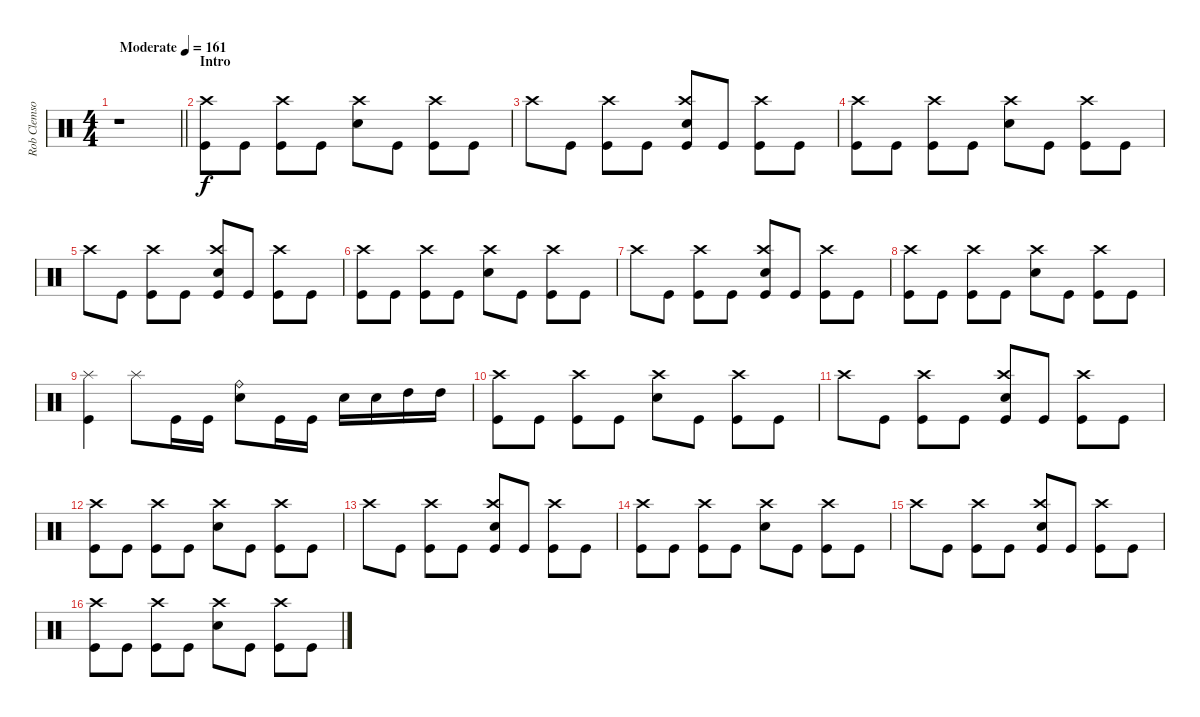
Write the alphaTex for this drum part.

\track ("Rob Clemson (Drums)" "Rob Clemso") {instrument percussion}
\staff {score}
\articulation defaults
\ts (4 4)
\tempo (161 "Moderate")
\clef neutral
\barLineRight lightlight
\ks c
r.1{dy f} |
\section ("" "Intro")
("Kick (hit)" "Crash high (hit)").8 "Kick (hit)".8 ("Kick (hit)" "Crash high (hit)").8 "Kick (hit)".8 ("Electric Snare (hit)" "Crash high (hit)").8 "Kick (hit)".8 ("Kick (hit)" "Crash high (hit)").8 "Kick (hit)".8 |
"Crash high (hit)".8 "Kick (hit)".8 ("Kick (hit)" "Crash high (hit)").8 "Kick (hit)".8 ("Crash high (hit)" "Kick (hit)" "Electric Snare (hit)").8 "Kick (hit)".8 ("Kick (hit)" "Crash high (hit)").8 "Kick (hit)".8 |
("Kick (hit)" "Crash high (hit)").8 "Kick (hit)".8 ("Kick (hit)" "Crash high (hit)").8 "Kick (hit)".8 ("Electric Snare (hit)" "Crash high (hit)").8 "Kick (hit)".8 ("Kick (hit)" "Crash high (hit)").8 "Kick (hit)".8 |
"Crash high (hit)".8 "Kick (hit)".8 ("Kick (hit)" "Crash high (hit)").8 "Kick (hit)".8 ("Crash high (hit)" "Kick (hit)" "Electric Snare (hit)").8 "Kick (hit)".8 ("Kick (hit)" "Crash high (hit)").8 "Kick (hit)".8 |
("Kick (hit)" "Crash high (hit)").8 "Kick (hit)".8 ("Kick (hit)" "Crash high (hit)").8 "Kick (hit)".8 ("Electric Snare (hit)" "Crash high (hit)").8 "Kick (hit)".8 ("Kick (hit)" "Crash high (hit)").8 "Kick (hit)".8 |
"Crash high (hit)".8 "Kick (hit)".8 ("Kick (hit)" "Crash high (hit)").8 "Kick (hit)".8 ("Crash high (hit)" "Kick (hit)" "Electric Snare (hit)").8 "Kick (hit)".8 ("Kick (hit)" "Crash high (hit)").8 "Kick (hit)".8 |
("Kick (hit)" "Crash high (hit)").8 "Kick (hit)".8 ("Kick (hit)" "Crash high (hit)").8 "Kick (hit)".8 ("Electric Snare (hit)" "Crash high (hit)").8 "Kick (hit)".8 ("Kick (hit)" "Crash high (hit)").8 "Kick (hit)".8 |
("Splash (hit)" "Kick (hit)").4 "Splash (hit)".8 "Kick (hit)".16 "Kick (hit)".16 ("Electric Snare (hit)" "Ride (bell)").8 "Kick (hit)".16 "Kick (hit)".16 "Electric Snare (hit)".16 "Electric Snare (hit)".16 "High Tom (hit)".16 "High Tom (hit)".16 |
("Kick (hit)" "Crash high (hit)").8 "Kick (hit)".8 ("Kick (hit)" "Crash high (hit)").8 "Kick (hit)".8 ("Electric Snare (hit)" "Crash high (hit)").8 "Kick (hit)".8 ("Kick (hit)" "Crash high (hit)").8 "Kick (hit)".8 |
"Crash high (hit)".8 "Kick (hit)".8 ("Kick (hit)" "Crash high (hit)").8 "Kick (hit)".8 ("Crash high (hit)" "Kick (hit)" "Electric Snare (hit)").8 "Kick (hit)".8 ("Kick (hit)" "Crash high (hit)").8 "Kick (hit)".8 |
("Kick (hit)" "Crash high (hit)").8 "Kick (hit)".8 ("Kick (hit)" "Crash high (hit)").8 "Kick (hit)".8 ("Electric Snare (hit)" "Crash high (hit)").8 "Kick (hit)".8 ("Kick (hit)" "Crash high (hit)").8 "Kick (hit)".8 |
"Crash high (hit)".8 "Kick (hit)".8 ("Kick (hit)" "Crash high (hit)").8 "Kick (hit)".8 ("Crash high (hit)" "Kick (hit)" "Electric Snare (hit)").8 "Kick (hit)".8 ("Kick (hit)" "Crash high (hit)").8 "Kick (hit)".8 |
("Kick (hit)" "Crash high (hit)").8 "Kick (hit)".8 ("Kick (hit)" "Crash high (hit)").8 "Kick (hit)".8 ("Electric Snare (hit)" "Crash high (hit)").8 "Kick (hit)".8 ("Kick (hit)" "Crash high (hit)").8 "Kick (hit)".8 |
"Crash high (hit)".8 "Kick (hit)".8 ("Kick (hit)" "Crash high (hit)").8 "Kick (hit)".8 ("Crash high (hit)" "Kick (hit)" "Electric Snare (hit)").8 "Kick (hit)".8 ("Kick (hit)" "Crash high (hit)").8 "Kick (hit)".8 |
("Kick (hit)" "Crash high (hit)").8 "Kick (hit)".8 ("Kick (hit)" "Crash high (hit)").8 "Kick (hit)".8 ("Electric Snare (hit)" "Crash high (hit)").8 "Kick (hit)".8 ("Kick (hit)" "Crash high (hit)").8 "Kick (hit)".8
